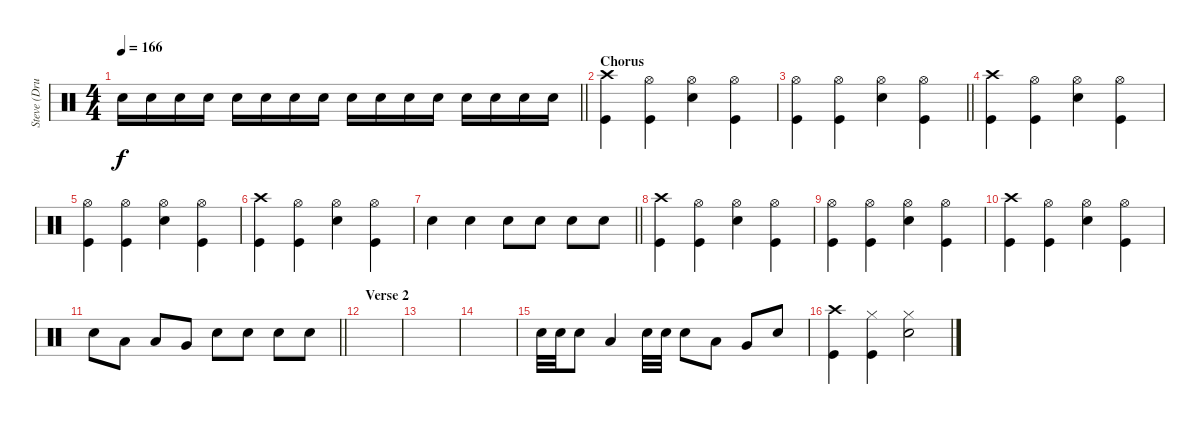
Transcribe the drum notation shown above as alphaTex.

\track ("Steve (Drums)" "Steve (Dru") {instrument percussion}
\staff {score}
\articulation defaults
\ts (4 4)
\tempo 166
\clef neutral
\barLineRight lightlight
\ks c "Electric Snare (hit)".16{dy f} "Electric Snare (hit)".16 "Electric Snare (hit)".16 "Electric Snare (hit)".16 "Electric Snare (hit)".16 "Electric Snare (hit)".16 "Electric Snare (hit)".16 "Electric Snare (hit)".16 "Electric Snare (hit)".16 "Electric Snare (hit)".16 "Electric Snare (hit)".16 "Electric Snare (hit)".16 "Electric Snare (hit)".16 "Electric Snare (hit)".16 "Electric Snare (hit)".16 "Electric Snare (hit)".16
|
\section ("" "Chorus")
("Crash high (hit)" "Kick (hit)").4 ("Hi-Hat (open)" "Kick (hit)").4 ("Hi-Hat (open)" "Electric Snare (hit)").4 ("Hi-Hat (open)" "Kick (hit)").4 |
\barLineRight lightlight
("Hi-Hat (open)" "Kick (hit)").4 ("Hi-Hat (open)" "Kick (hit)").4 ("Hi-Hat (open)" "Electric Snare (hit)").4 ("Hi-Hat (open)" "Kick (hit)").4 |
("Crash high (hit)" "Kick (hit)").4 ("Hi-Hat (open)" "Kick (hit)").4 ("Hi-Hat (open)" "Electric Snare (hit)").4 ("Hi-Hat (open)" "Kick (hit)").4 |
("Hi-Hat (open)" "Kick (hit)").4 ("Hi-Hat (open)" "Kick (hit)").4 ("Hi-Hat (open)" "Electric Snare (hit)").4 ("Hi-Hat (open)" "Kick (hit)").4 |
("Crash high (hit)" "Kick (hit)").4 ("Hi-Hat (open)" "Kick (hit)").4 ("Hi-Hat (open)" "Electric Snare (hit)").4 ("Hi-Hat (open)" "Kick (hit)").4 |
\barLineRight lightlight "Electric Snare (hit)".4 "Electric Snare (hit)".4 "Electric Snare (hit)".8 "Electric Snare (hit)".8 "Electric Snare (hit)".8 "Electric Snare (hit)".8
|
("Crash high (hit)" "Kick (hit)").4 ("Hi-Hat (open)" "Kick (hit)").4 ("Hi-Hat (open)" "Electric Snare (hit)").4 ("Hi-Hat (open)" "Kick (hit)").4 |
("Hi-Hat (open)" "Kick (hit)").4 ("Hi-Hat (open)" "Kick (hit)").4 ("Hi-Hat (open)" "Electric Snare (hit)").4 ("Hi-Hat (open)" "Kick (hit)").4 |
("Crash high (hit)" "Kick (hit)").4 ("Hi-Hat (open)" "Kick (hit)").4 ("Hi-Hat (open)" "Electric Snare (hit)").4 ("Hi-Hat (open)" "Kick (hit)").4 |
\barLineRight lightlight "Electric Snare (hit)".8 "Low Tom (hit)".8 "Low Tom (hit)".8 "Very Low Tom (hit)".8 "Electric Snare (hit)".8 "Electric Snare (hit)".8 "Electric Snare (hit)".8 "Electric Snare (hit)".8
|
\section ("" "Verse 2")
|
|
|
"Electric Snare (hit)".32 "Electric Snare (hit)".32 "Electric Snare (hit)".8 "Low Tom (hit)".4 "Electric Snare (hit)".32 "Electric Snare (hit)".32 "Electric Snare (hit)".8 "Low Tom (hit)".8 "Very Low Tom (hit)".8 "Electric Snare (hit)".8 |
("Crash high (hit)" "Kick (hit)").4 ("Hi-Hat (closed)" "Kick (hit)").4 ("Hi-Hat (closed)" "Electric Snare (hit)").2
